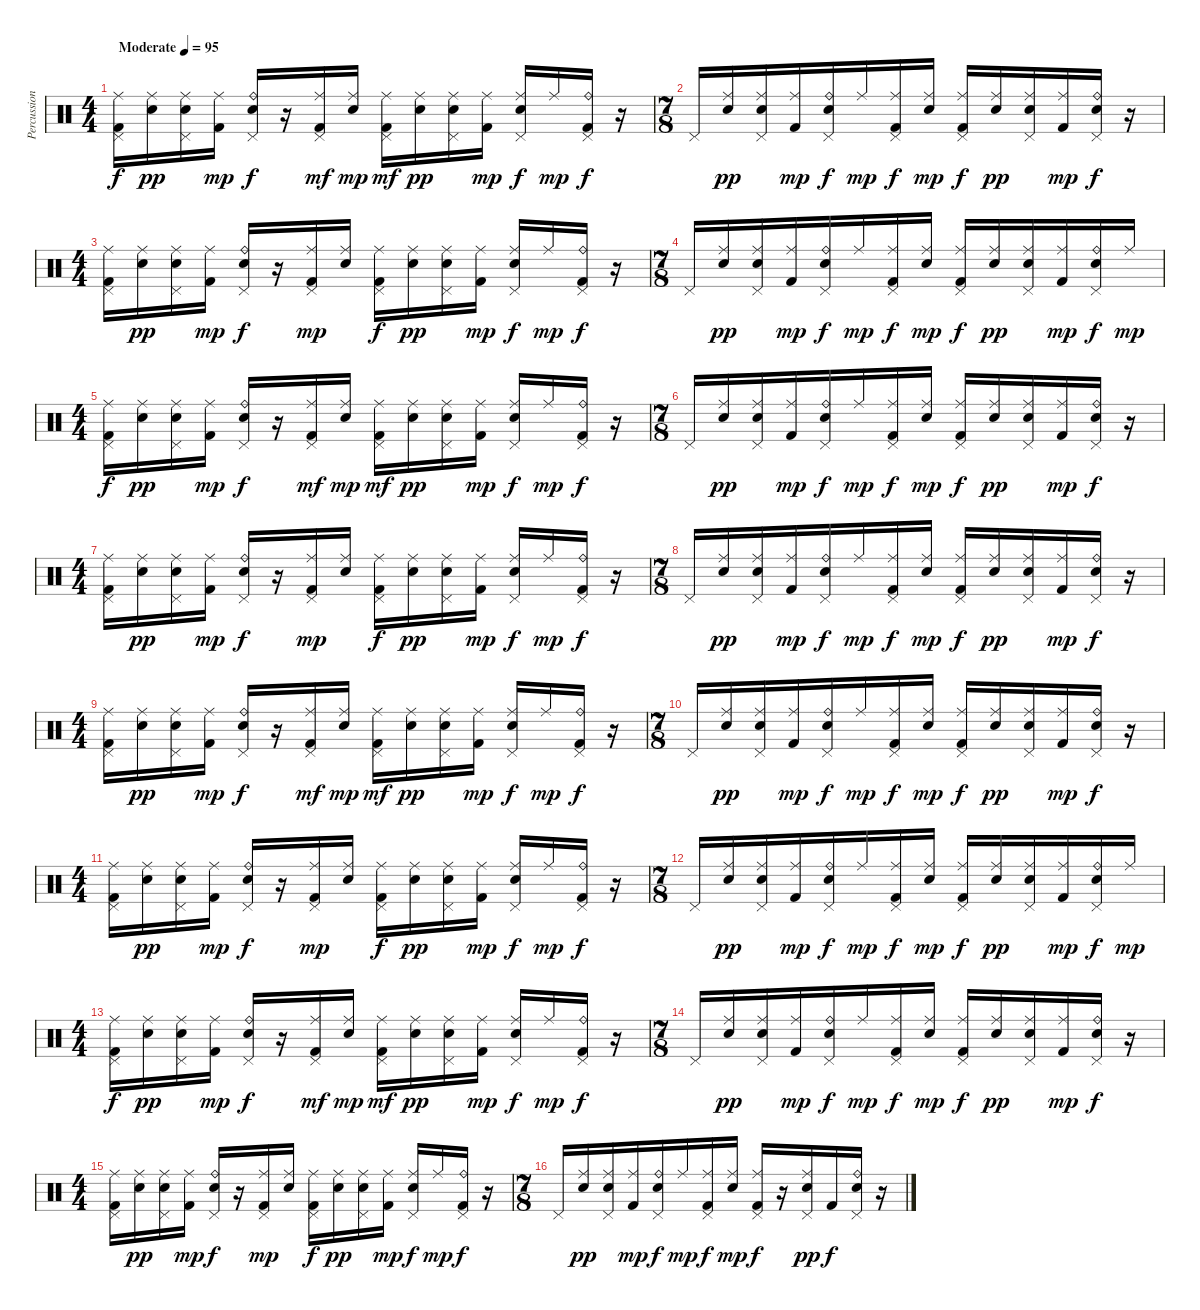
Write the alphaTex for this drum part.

\track ("Percussion" "Percussion") {instrument percussion}
\staff {score}
\articulation defaults
\ts (4 4)
\tempo (95 "Moderate")
\clef neutral
\ks c
("Ride (middle)" "Pedal Hi-Hat (hit)" "Kick (hit) 2").16{dy f} ("Ride (middle)" "Snare (hit) 2").16{dy pp} ("Ride (middle)" "Snare (hit) 2" "Pedal Hi-Hat (hit)").16 ("Ride (middle)" "Kick (hit) 2").16{dy mp} ("Ride (bell)" "Snare (hit) 2" "Pedal Hi-Hat (hit)").16{dy f} r.16 ("Ride (middle)" "Pedal Hi-Hat (hit)" "Kick (hit) 2").16{dy mf} ("Ride (middle)" "Snare (hit) 2").16{dy mp} ("Ride (middle)" "Pedal Hi-Hat (hit)" "Kick (hit) 2").16{dy mf} ("Ride (middle)" "Snare (hit) 2").16{dy pp} ("Ride (middle)" "Snare (hit) 2" "Pedal Hi-Hat (hit)").16 ("Ride (middle)" "Kick (hit) 2").16{dy mp} ("Ride (middle)" "Snare (hit) 2" "Pedal Hi-Hat (hit)").16{dy f} "Ride (middle)".16{dy mp} ("Ride (bell)" "Pedal Hi-Hat (hit)" "Kick (hit) 2").16{dy f} r.16 |
\ts (7 8)
"Pedal Hi-Hat (hit)".16 ("Ride (middle)" "Snare (hit) 2").16{dy pp} ("Ride (middle)" "Snare (hit) 2" "Pedal Hi-Hat (hit)").16 ("Ride (middle)" "Kick (hit) 2").16{dy mp} ("Ride (bell)" "Snare (hit) 2" "Pedal Hi-Hat (hit)").16{dy f} "Ride (middle)".16{dy mp} ("Ride (middle)" "Pedal Hi-Hat (hit)" "Kick (hit) 2").16{dy f} ("Ride (middle)" "Snare (hit) 2").16{dy mp} ("Ride (middle)" "Pedal Hi-Hat (hit)" "Kick (hit) 2").16{dy f} ("Ride (middle)" "Snare (hit) 2").16{dy pp} ("Ride (middle)" "Snare (hit) 2" "Pedal Hi-Hat (hit)").16 ("Ride (middle)" "Kick (hit) 2").16{dy mp} ("Ride (bell)" "Snare (hit) 2" "Pedal Hi-Hat (hit)").16{dy f} r.16 |
\ts (4 4)
("Ride (middle)" "Pedal Hi-Hat (hit)" "Kick (hit) 2").16 ("Ride (middle)" "Snare (hit) 2").16{dy pp} ("Ride (middle)" "Snare (hit) 2" "Pedal Hi-Hat (hit)").16 ("Ride (middle)" "Kick (hit) 2").16{dy mp} ("Ride (bell)" "Snare (hit) 2" "Pedal Hi-Hat (hit)").16{dy f} r.16 ("Ride (middle)" "Pedal Hi-Hat (hit)" "Kick (hit) 2").16{dy mp} ("Ride (middle)" "Snare (hit) 2").16 ("Ride (middle)" "Pedal Hi-Hat (hit)" "Kick (hit) 2").16{dy f} ("Ride (middle)" "Snare (hit) 2").16{dy pp} ("Ride (middle)" "Snare (hit) 2" "Pedal Hi-Hat (hit)").16 ("Ride (middle)" "Kick (hit) 2").16{dy mp} ("Ride (middle)" "Snare (hit) 2" "Pedal Hi-Hat (hit)").16{dy f} "Ride (middle)".16{dy mp} ("Ride (bell)" "Pedal Hi-Hat (hit)" "Kick (hit) 2").16{dy f} r.16 |
\ts (7 8)
"Pedal Hi-Hat (hit)".16 ("Ride (middle)" "Snare (hit) 2").16{dy pp} ("Ride (middle)" "Snare (hit) 2" "Pedal Hi-Hat (hit)").16 ("Ride (middle)" "Kick (hit) 2").16{dy mp} ("Ride (bell)" "Snare (hit) 2" "Pedal Hi-Hat (hit)").16{dy f} "Ride (middle)".16{dy mp} ("Ride (middle)" "Pedal Hi-Hat (hit)" "Kick (hit) 2").16{dy f} ("Ride (middle)" "Snare (hit) 2").16{dy mp} ("Ride (middle)" "Pedal Hi-Hat (hit)" "Kick (hit) 2").16{dy f} ("Ride (middle)" "Snare (hit) 2").16{dy pp} ("Ride (middle)" "Snare (hit) 2" "Pedal Hi-Hat (hit)").16 ("Ride (middle)" "Kick (hit) 2").16{dy mp} ("Ride (bell)" "Snare (hit) 2" "Pedal Hi-Hat (hit)").16{dy f} "Ride (middle)".16{dy mp} |
\ts (4 4)
("Ride (middle)" "Pedal Hi-Hat (hit)" "Kick (hit) 2").16{dy f} ("Ride (middle)" "Snare (hit) 2").16{dy pp} ("Ride (middle)" "Snare (hit) 2" "Pedal Hi-Hat (hit)").16 ("Ride (middle)" "Kick (hit) 2").16{dy mp} ("Ride (bell)" "Snare (hit) 2" "Pedal Hi-Hat (hit)").16{dy f} r.16 ("Ride (middle)" "Pedal Hi-Hat (hit)" "Kick (hit) 2").16{dy mf} ("Ride (middle)" "Snare (hit) 2").16{dy mp} ("Ride (middle)" "Pedal Hi-Hat (hit)" "Kick (hit) 2").16{dy mf} ("Ride (middle)" "Snare (hit) 2").16{dy pp} ("Ride (middle)" "Snare (hit) 2" "Pedal Hi-Hat (hit)").16 ("Ride (middle)" "Kick (hit) 2").16{dy mp} ("Ride (middle)" "Snare (hit) 2" "Pedal Hi-Hat (hit)").16{dy f} "Ride (middle)".16{dy mp} ("Ride (bell)" "Pedal Hi-Hat (hit)" "Kick (hit) 2").16{dy f} r.16 |
\ts (7 8)
"Pedal Hi-Hat (hit)".16 ("Ride (middle)" "Snare (hit) 2").16{dy pp} ("Ride (middle)" "Snare (hit) 2" "Pedal Hi-Hat (hit)").16 ("Ride (middle)" "Kick (hit) 2").16{dy mp} ("Ride (bell)" "Snare (hit) 2" "Pedal Hi-Hat (hit)").16{dy f} "Ride (middle)".16{dy mp} ("Ride (middle)" "Pedal Hi-Hat (hit)" "Kick (hit) 2").16{dy f} ("Ride (middle)" "Snare (hit) 2").16{dy mp} ("Ride (middle)" "Pedal Hi-Hat (hit)" "Kick (hit) 2").16{dy f} ("Ride (middle)" "Snare (hit) 2").16{dy pp} ("Ride (middle)" "Snare (hit) 2" "Pedal Hi-Hat (hit)").16 ("Ride (middle)" "Kick (hit) 2").16{dy mp} ("Ride (bell)" "Snare (hit) 2" "Pedal Hi-Hat (hit)").16{dy f} r.16 |
\ts (4 4)
("Ride (middle)" "Pedal Hi-Hat (hit)" "Kick (hit) 2").16 ("Ride (middle)" "Snare (hit) 2").16{dy pp} ("Ride (middle)" "Snare (hit) 2" "Pedal Hi-Hat (hit)").16 ("Ride (middle)" "Kick (hit) 2").16{dy mp} ("Ride (bell)" "Snare (hit) 2" "Pedal Hi-Hat (hit)").16{dy f} r.16 ("Ride (middle)" "Pedal Hi-Hat (hit)" "Kick (hit) 2").16{dy mp} ("Ride (middle)" "Snare (hit) 2").16 ("Ride (middle)" "Pedal Hi-Hat (hit)" "Kick (hit) 2").16{dy f} ("Ride (middle)" "Snare (hit) 2").16{dy pp} ("Ride (middle)" "Snare (hit) 2" "Pedal Hi-Hat (hit)").16 ("Ride (middle)" "Kick (hit) 2").16{dy mp} ("Ride (middle)" "Snare (hit) 2" "Pedal Hi-Hat (hit)").16{dy f} "Ride (middle)".16{dy mp} ("Ride (bell)" "Pedal Hi-Hat (hit)" "Kick (hit) 2").16{dy f} r.16 |
\ts (7 8)
"Pedal Hi-Hat (hit)".16 ("Ride (middle)" "Snare (hit) 2").16{dy pp} ("Ride (middle)" "Snare (hit) 2" "Pedal Hi-Hat (hit)").16 ("Ride (middle)" "Kick (hit) 2").16{dy mp} ("Ride (bell)" "Snare (hit) 2" "Pedal Hi-Hat (hit)").16{dy f} "Ride (middle)".16{dy mp} ("Ride (middle)" "Pedal Hi-Hat (hit)" "Kick (hit) 2").16{dy f} ("Ride (middle)" "Snare (hit) 2").16{dy mp} ("Ride (middle)" "Pedal Hi-Hat (hit)" "Kick (hit) 2").16{dy f} ("Ride (middle)" "Snare (hit) 2").16{dy pp} ("Ride (middle)" "Snare (hit) 2" "Pedal Hi-Hat (hit)").16 ("Ride (middle)" "Kick (hit) 2").16{dy mp} ("Ride (bell)" "Snare (hit) 2" "Pedal Hi-Hat (hit)").16{dy f} r.16 |
\ts (4 4)
("Ride (middle)" "Pedal Hi-Hat (hit)" "Kick (hit) 2").16 ("Ride (middle)" "Snare (hit) 2").16{dy pp} ("Ride (middle)" "Snare (hit) 2" "Pedal Hi-Hat (hit)").16 ("Ride (middle)" "Kick (hit) 2").16{dy mp} ("Ride (bell)" "Snare (hit) 2" "Pedal Hi-Hat (hit)").16{dy f} r.16 ("Ride (middle)" "Pedal Hi-Hat (hit)" "Kick (hit) 2").16{dy mf} ("Ride (middle)" "Snare (hit) 2").16{dy mp} ("Ride (middle)" "Pedal Hi-Hat (hit)" "Kick (hit) 2").16{dy mf} ("Ride (middle)" "Snare (hit) 2").16{dy pp} ("Ride (middle)" "Snare (hit) 2" "Pedal Hi-Hat (hit)").16 ("Ride (middle)" "Kick (hit) 2").16{dy mp} ("Ride (middle)" "Snare (hit) 2" "Pedal Hi-Hat (hit)").16{dy f} "Ride (middle)".16{dy mp} ("Ride (bell)" "Pedal Hi-Hat (hit)" "Kick (hit) 2").16{dy f} r.16 |
\ts (7 8)
"Pedal Hi-Hat (hit)".16 ("Ride (middle)" "Snare (hit) 2").16{dy pp} ("Ride (middle)" "Snare (hit) 2" "Pedal Hi-Hat (hit)").16 ("Ride (middle)" "Kick (hit) 2").16{dy mp} ("Ride (bell)" "Snare (hit) 2" "Pedal Hi-Hat (hit)").16{dy f} "Ride (middle)".16{dy mp} ("Ride (middle)" "Pedal Hi-Hat (hit)" "Kick (hit) 2").16{dy f} ("Ride (middle)" "Snare (hit) 2").16{dy mp} ("Ride (middle)" "Pedal Hi-Hat (hit)" "Kick (hit) 2").16{dy f} ("Ride (middle)" "Snare (hit) 2").16{dy pp} ("Ride (middle)" "Snare (hit) 2" "Pedal Hi-Hat (hit)").16 ("Ride (middle)" "Kick (hit) 2").16{dy mp} ("Ride (bell)" "Snare (hit) 2" "Pedal Hi-Hat (hit)").16{dy f} r.16 |
\ts (4 4)
("Ride (middle)" "Pedal Hi-Hat (hit)" "Kick (hit) 2").16 ("Ride (middle)" "Snare (hit) 2").16{dy pp} ("Ride (middle)" "Snare (hit) 2" "Pedal Hi-Hat (hit)").16 ("Ride (middle)" "Kick (hit) 2").16{dy mp} ("Ride (bell)" "Snare (hit) 2" "Pedal Hi-Hat (hit)").16{dy f} r.16 ("Ride (middle)" "Pedal Hi-Hat (hit)" "Kick (hit) 2").16{dy mp} ("Ride (middle)" "Snare (hit) 2").16 ("Ride (middle)" "Pedal Hi-Hat (hit)" "Kick (hit) 2").16{dy f} ("Ride (middle)" "Snare (hit) 2").16{dy pp} ("Ride (middle)" "Snare (hit) 2" "Pedal Hi-Hat (hit)").16 ("Ride (middle)" "Kick (hit) 2").16{dy mp} ("Ride (middle)" "Snare (hit) 2" "Pedal Hi-Hat (hit)").16{dy f} "Ride (middle)".16{dy mp} ("Ride (bell)" "Pedal Hi-Hat (hit)" "Kick (hit) 2").16{dy f} r.16 |
\ts (7 8)
"Pedal Hi-Hat (hit)".16 ("Ride (middle)" "Snare (hit) 2").16{dy pp} ("Ride (middle)" "Snare (hit) 2" "Pedal Hi-Hat (hit)").16 ("Ride (middle)" "Kick (hit) 2").16{dy mp} ("Ride (bell)" "Snare (hit) 2" "Pedal Hi-Hat (hit)").16{dy f} "Ride (middle)".16{dy mp} ("Ride (middle)" "Pedal Hi-Hat (hit)" "Kick (hit) 2").16{dy f} ("Ride (middle)" "Snare (hit) 2").16{dy mp} ("Ride (middle)" "Pedal Hi-Hat (hit)" "Kick (hit) 2").16{dy f} ("Ride (middle)" "Snare (hit) 2").16{dy pp} ("Ride (middle)" "Snare (hit) 2" "Pedal Hi-Hat (hit)").16 ("Ride (middle)" "Kick (hit) 2").16{dy mp} ("Ride (bell)" "Snare (hit) 2" "Pedal Hi-Hat (hit)").16{dy f} "Ride (middle)".16{dy mp} |
\ts (4 4)
("Ride (middle)" "Pedal Hi-Hat (hit)" "Kick (hit) 2").16{dy f} ("Ride (middle)" "Snare (hit) 2").16{dy pp} ("Ride (middle)" "Snare (hit) 2" "Pedal Hi-Hat (hit)").16 ("Ride (middle)" "Kick (hit) 2").16{dy mp} ("Ride (bell)" "Snare (hit) 2" "Pedal Hi-Hat (hit)").16{dy f} r.16 ("Ride (middle)" "Pedal Hi-Hat (hit)" "Kick (hit) 2").16{dy mf} ("Ride (middle)" "Snare (hit) 2").16{dy mp} ("Ride (middle)" "Pedal Hi-Hat (hit)" "Kick (hit) 2").16{dy mf} ("Ride (middle)" "Snare (hit) 2").16{dy pp} ("Ride (middle)" "Snare (hit) 2" "Pedal Hi-Hat (hit)").16 ("Ride (middle)" "Kick (hit) 2").16{dy mp} ("Ride (middle)" "Snare (hit) 2" "Pedal Hi-Hat (hit)").16{dy f} "Ride (middle)".16{dy mp} ("Ride (bell)" "Pedal Hi-Hat (hit)" "Kick (hit) 2").16{dy f} r.16 |
\ts (7 8)
"Pedal Hi-Hat (hit)".16 ("Ride (middle)" "Snare (hit) 2").16{dy pp} ("Ride (middle)" "Snare (hit) 2" "Pedal Hi-Hat (hit)").16 ("Ride (middle)" "Kick (hit) 2").16{dy mp} ("Ride (bell)" "Snare (hit) 2" "Pedal Hi-Hat (hit)").16{dy f} "Ride (middle)".16{dy mp} ("Ride (middle)" "Pedal Hi-Hat (hit)" "Kick (hit) 2").16{dy f} ("Ride (middle)" "Snare (hit) 2").16{dy mp} ("Ride (middle)" "Pedal Hi-Hat (hit)" "Kick (hit) 2").16{dy f} ("Ride (middle)" "Snare (hit) 2").16{dy pp} ("Ride (middle)" "Snare (hit) 2" "Pedal Hi-Hat (hit)").16 ("Ride (middle)" "Kick (hit) 2").16{dy mp} ("Ride (bell)" "Snare (hit) 2" "Pedal Hi-Hat (hit)").16{dy f} r.16 |
\ts (4 4)
("Ride (middle)" "Pedal Hi-Hat (hit)" "Kick (hit) 2").16 ("Ride (middle)" "Snare (hit) 2").16{dy pp} ("Ride (middle)" "Snare (hit) 2" "Pedal Hi-Hat (hit)").16 ("Ride (middle)" "Kick (hit) 2").16{dy mp} ("Ride (bell)" "Snare (hit) 2" "Pedal Hi-Hat (hit)").16{dy f} r.16 ("Ride (middle)" "Pedal Hi-Hat (hit)" "Kick (hit) 2").16{dy mp} ("Ride (middle)" "Snare (hit) 2").16 ("Ride (middle)" "Pedal Hi-Hat (hit)" "Kick (hit) 2").16{dy f} ("Ride (middle)" "Snare (hit) 2").16{dy pp} ("Ride (middle)" "Snare (hit) 2" "Pedal Hi-Hat (hit)").16 ("Ride (middle)" "Kick (hit) 2").16{dy mp} ("Ride (middle)" "Snare (hit) 2" "Pedal Hi-Hat (hit)").16{dy f} "Ride (middle)".16{dy mp} ("Ride (bell)" "Pedal Hi-Hat (hit)" "Kick (hit) 2").16{dy f} r.16 |
\ts (7 8)
"Pedal Hi-Hat (hit)".16 ("Ride (middle)" "Snare (hit) 2").16{dy pp} ("Ride (middle)" "Snare (hit) 2" "Pedal Hi-Hat (hit)").16 ("Ride (middle)" "Kick (hit) 2").16{dy mp} ("Ride (bell)" "Snare (hit) 2" "Pedal Hi-Hat (hit)").16{dy f} "Ride (middle)".16{dy mp} ("Ride (middle)" "Pedal Hi-Hat (hit)" "Kick (hit) 2").16{dy f} ("Ride (middle)" "Snare (hit) 2").16{dy mp} ("Ride (middle)" "Pedal Hi-Hat (hit)" "Kick (hit) 2").16{dy f} r.16 ("Ride (middle)" "Snare (hit) 2" "Pedal Hi-Hat (hit)").16{dy pp} "Kick (hit) 2".16{dy f} ("Ride (bell)" "Snare (hit) 2" "Pedal Hi-Hat (hit)").16 r.16
